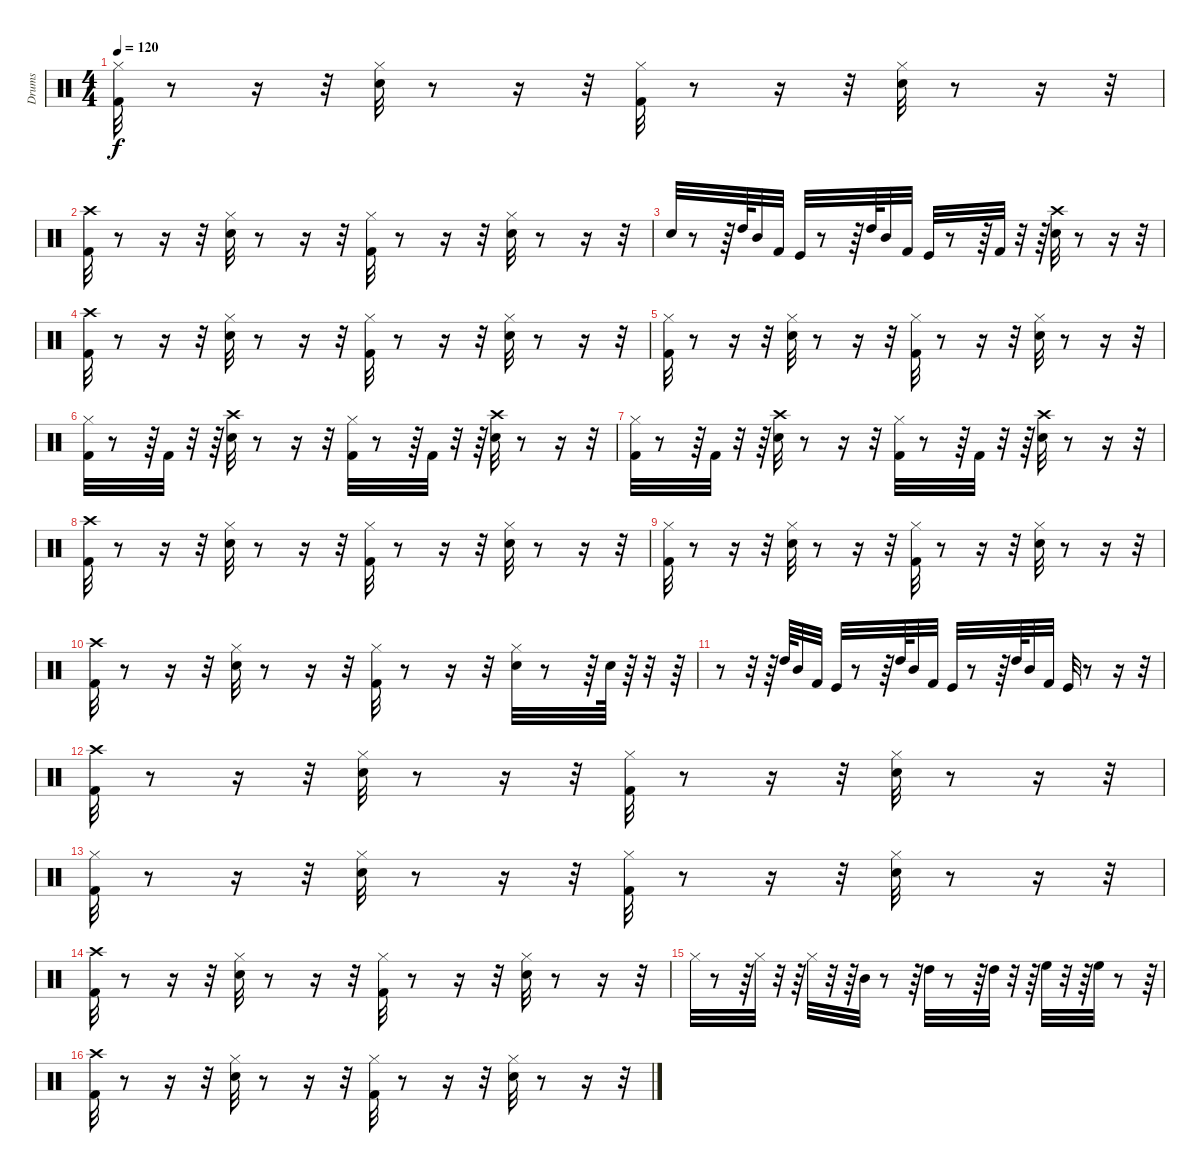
\track ("Drums" "Drums") {instrument percussion}
\staff {score}
\articulation defaults
\ts (4 4)
\tempo 120
\clef neutral
\ks c
("Kick (hit) 2" "Hi-Hat (closed)").32{dy f} r.8 r.16 r.32 ("Snare (hit) 2" "Hi-Hat (closed)").32 r.8 r.16 r.32 ("Kick (hit) 2" "Hi-Hat (closed)").32 r.8 r.16 r.32 ("Snare (hit) 2" "Hi-Hat (closed)").32 r.8 r.16 r.32 |
("Kick (hit) 2" "Crash high (hit)").32 r.8 r.16 r.32 ("Hi-Hat (closed)" "Snare (hit) 2").32 r.8 r.16 r.32 ("Hi-Hat (closed)" "Kick (hit) 2").32 r.8 r.16 r.32 ("Hi-Hat (closed)" "Snare (hit) 2").32 r.8 r.16 r.32 |
"Snare (hit) 2".32 r.8 r.64 "High Tom (hit)".64 "Mid Tom (hit)".32 "Kick (hit) 2".32 "Kick (hit)".32 r.8 r.64 "High Tom (hit)".64 "Mid Tom (hit)".32 "Kick (hit) 2".32 "Kick (hit)".32 r.8 r.64 "Kick (hit) 2".32 r.32 r.64 ("Crash high (hit)" "Snare (hit) 2").32 r.8 r.16 r.32 |
("Kick (hit) 2" "Crash high (hit)").32 r.8 r.16 r.32 ("Hi-Hat (closed)" "Snare (hit) 2").32 r.8 r.16 r.32 ("Hi-Hat (closed)" "Kick (hit) 2").32 r.8 r.16 r.32 ("Hi-Hat (closed)" "Snare (hit) 2").32 r.8 r.16 r.32 |
("Kick (hit) 2" "Hi-Hat (closed)").32 r.8 r.16 r.32 ("Snare (hit) 2" "Hi-Hat (closed)").32 r.8 r.16 r.32 ("Kick (hit) 2" "Hi-Hat (closed)").32 r.8 r.16 r.32 ("Snare (hit) 2" "Hi-Hat (closed)").32 r.8 r.16 r.32 |
("Hi-Hat (closed)" "Kick (hit) 2").32 r.8 r.64 "Kick (hit) 2".32 r.32 r.64 ("Crash high (hit)" "Snare (hit) 2").32 r.8 r.16 r.32 ("Hi-Hat (closed)" "Kick (hit) 2").32 r.8 r.64 "Kick (hit) 2".32 r.32 r.64 ("Crash high (hit)" "Snare (hit) 2").32 r.8 r.16 r.32 |
("Kick (hit) 2" "Hi-Hat (closed)").32 r.8 r.64 "Kick (hit) 2".32 r.32 r.64 ("Snare (hit) 2" "Crash high (hit)").32 r.8 r.16 r.32 ("Hi-Hat (closed)" "Kick (hit) 2").32 r.8 r.64 "Kick (hit) 2".32 r.32 r.64 ("Crash high (hit)" "Snare (hit) 2").32 r.8 r.16 r.32 |
("Kick (hit) 2" "Crash high (hit)").32 r.8 r.16 r.32 ("Hi-Hat (closed)" "Snare (hit) 2").32 r.8 r.16 r.32 ("Hi-Hat (closed)" "Kick (hit) 2").32 r.8 r.16 r.32 ("Hi-Hat (closed)" "Snare (hit) 2").32 r.8 r.16 r.32 |
("Kick (hit) 2" "Hi-Hat (closed)").32 r.8 r.16 r.32 ("Snare (hit) 2" "Hi-Hat (closed)").32 r.8 r.16 r.32 ("Kick (hit) 2" "Hi-Hat (closed)").32 r.8 r.16 r.32 ("Snare (hit) 2" "Hi-Hat (closed)").32 r.8 r.16 r.32 |
("Crash high (hit)" "Kick (hit) 2").32 r.8 r.16 r.32 ("Hi-Hat (closed)" "Snare (hit) 2").32 r.8 r.16 r.32 ("Kick (hit) 2" "Hi-Hat (closed)").32 r.8 r.16 r.32 ("Hi-Hat (closed)" "Snare (hit) 2").32 r.8 r.64 "Snare (hit) 2".64 r.64 r.32 r.64 |
r.8 r.32 r.64 "High Tom (hit)".64 "Mid Tom (hit)".32 "Kick (hit) 2".32 "Kick (hit)".32 r.8 r.64 "High Tom (hit)".64 "Mid Tom (hit)".32 "Kick (hit) 2".32 "Kick (hit)".32 r.8 r.64 "High Tom (hit)".64 "Mid Tom (hit)".32 "Kick (hit) 2".32 "Kick (hit)".32 r.8 r.16 r.32 |
("Kick (hit) 2" "Crash high (hit)").32 r.8 r.16 r.32 ("Snare (hit) 2" "Hi-Hat (closed)").32 r.8 r.16 r.32 ("Kick (hit) 2" "Hi-Hat (closed)").32 r.8 r.16 r.32 ("Snare (hit) 2" "Hi-Hat (closed)").32 r.8 r.16 r.32 |
("Kick (hit) 2" "Hi-Hat (closed)").32 r.8 r.16 r.32 ("Snare (hit) 2" "Hi-Hat (closed)").32 r.8 r.16 r.32 ("Kick (hit) 2" "Hi-Hat (closed)").32 r.8 r.16 r.32 ("Snare (hit) 2" "Hi-Hat (closed)").32 r.8 r.16 r.32 |
("Kick (hit) 2" "Crash high (hit)").32 r.8 r.16 r.32 ("Hi-Hat (closed)" "Snare (hit) 2").32 r.8 r.16 r.32 ("Hi-Hat (closed)" "Kick (hit) 2").32 r.8 r.16 r.32 ("Hi-Hat (closed)" "Snare (hit) 2").32 r.8 r.16 r.32 |
"Hi-Hat (closed)".32 r.8 r.64 "Hi-Hat (closed)".32 r.32 r.64 "Hi-Hat (closed)".32 r.32 r.64 "Mid Tom (hit)".32 r.8 r.64 "High Tom (hit)".32 r.8 r.64 "High Tom (hit)".32 r.32 r.64 "High Floor Tom (hit)".32 r.32 r.64 "High Floor Tom (hit)".32 r.8 r.64 |
("Kick (hit) 2" "Crash high (hit)").32 r.8 r.16 r.32 ("Snare (hit) 2" "Hi-Hat (closed)").32 r.8 r.16 r.32 ("Kick (hit) 2" "Hi-Hat (closed)").32 r.8 r.16 r.32 ("Snare (hit) 2" "Hi-Hat (closed)").32 r.8 r.16 r.32
